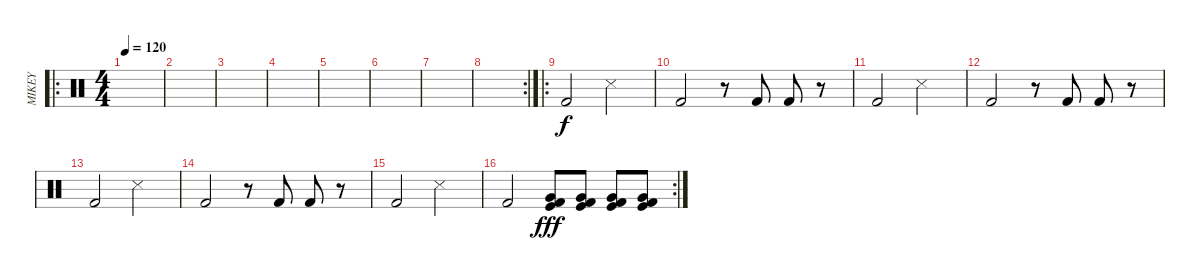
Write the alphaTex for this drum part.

\track ("MIKEY" "MIKEY") {instrument percussion}
\staff {score}
\articulation defaults
\ro
\ts (4 4)
\tempo 120
\clef neutral
\ks c
|
|
|
|
|
|
|
\rc 2
|
\ro "Kick (hit) 2".2 "Snare (side stick) 3".2
|
"Kick (hit) 2".2 r.8 "Kick (hit) 2".8 "Kick (hit) 2".8 r.8 |
"Kick (hit) 2".2 "Snare (side stick) 3".2 |
"Kick (hit) 2".2 r.8 "Kick (hit) 2".8 "Kick (hit) 2".8 r.8 |
"Kick (hit) 2".2 "Snare (side stick) 3".2 |
"Kick (hit) 2".2 r.8 "Kick (hit) 2".8 "Kick (hit) 2".8 r.8 |
"Kick (hit) 2".2 "Snare (side stick) 3".2 |
\rc 2 "Kick (hit) 2".2
("Very Low Tom (hit)" "Kick (hit)" "Kick (hit) 2").8{dy fff} ("Very Low Tom (hit)" "Kick (hit)" "Kick (hit) 2").8 ("Very Low Tom (hit)" "Kick (hit)" "Kick (hit) 2").8 ("Very Low Tom (hit)" "Kick (hit)" "Kick (hit) 2").8
